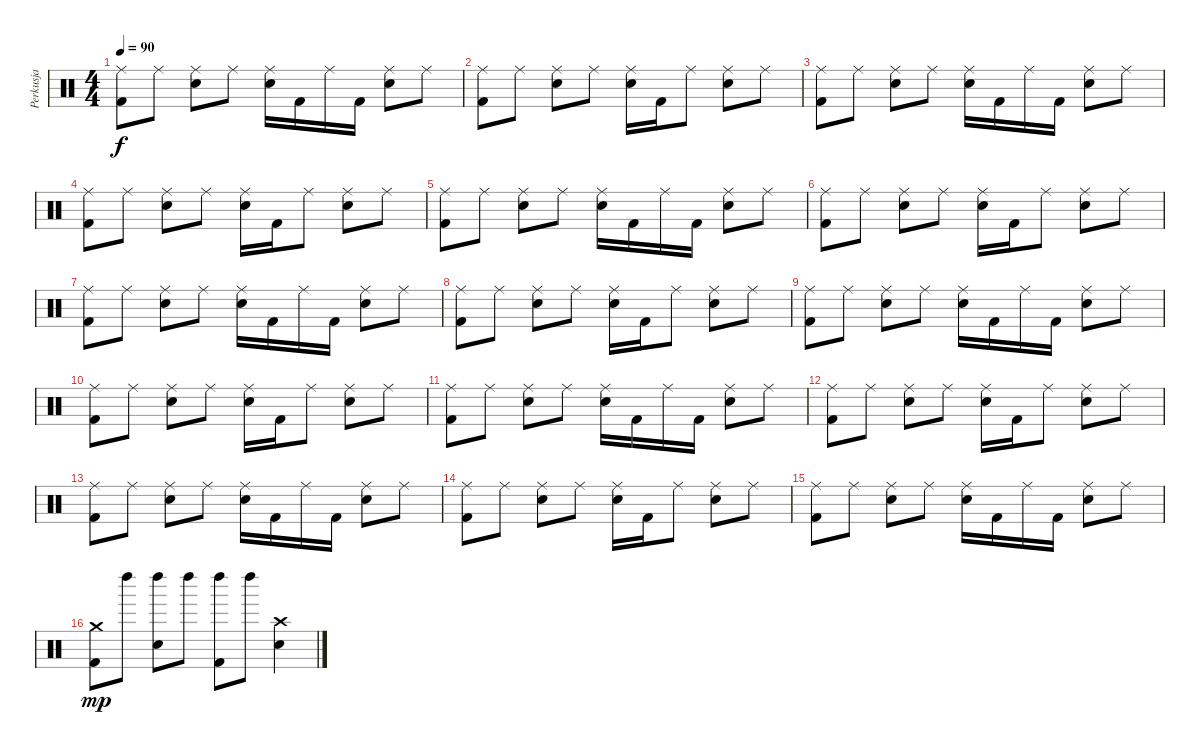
\track ("Perkusja" "Perkusja") {instrument percussion}
\staff {score}
\articulation defaults
\ts (4 4)
\tempo 90
\clef neutral
\ks c
("Kick (hit) 2" "Ride (middle)").8{dy f} "Ride (middle)".8 ("Electric Snare (hit)" "Ride (middle)").8 "Ride (middle)".8 ("Electric Snare (hit)" "Ride (middle)").16 "Kick (hit) 2".16 "Ride (middle)".16 "Kick (hit) 2".16 ("Electric Snare (hit)" "Ride (middle)").8 "Ride (middle)".8 |
("Kick (hit) 2" "Ride (middle)").8 "Ride (middle)".8 ("Electric Snare (hit)" "Ride (middle)").8 "Ride (middle)".8 ("Electric Snare (hit)" "Ride (middle)").16 "Kick (hit) 2".16 "Ride (middle)".8 ("Electric Snare (hit)" "Ride (middle)").8 "Ride (middle)".8 |
("Kick (hit) 2" "Ride (middle)").8 "Ride (middle)".8 ("Electric Snare (hit)" "Ride (middle)").8 "Ride (middle)".8 ("Electric Snare (hit)" "Ride (middle)").16 "Kick (hit) 2".16 "Ride (middle)".16 "Kick (hit) 2".16 ("Electric Snare (hit)" "Ride (middle)").8 "Ride (middle)".8 |
("Kick (hit) 2" "Ride (middle)").8 "Ride (middle)".8 ("Electric Snare (hit)" "Ride (middle)").8 "Ride (middle)".8 ("Electric Snare (hit)" "Ride (middle)").16 "Kick (hit) 2".16 "Ride (middle)".8 ("Electric Snare (hit)" "Ride (middle)").8 "Ride (middle)".8 |
("Kick (hit) 2" "Ride (middle)").8 "Ride (middle)".8 ("Electric Snare (hit)" "Ride (middle)").8 "Ride (middle)".8 ("Electric Snare (hit)" "Ride (middle)").16 "Kick (hit) 2".16 "Ride (middle)".16 "Kick (hit) 2".16 ("Electric Snare (hit)" "Ride (middle)").8 "Ride (middle)".8 |
("Kick (hit) 2" "Ride (middle)").8 "Ride (middle)".8 ("Electric Snare (hit)" "Ride (middle)").8 "Ride (middle)".8 ("Electric Snare (hit)" "Ride (middle)").16 "Kick (hit) 2".16 "Ride (middle)".8 ("Electric Snare (hit)" "Ride (middle)").8 "Ride (middle)".8 |
("Kick (hit) 2" "Ride (middle)").8 "Ride (middle)".8 ("Electric Snare (hit)" "Ride (middle)").8 "Ride (middle)".8 ("Electric Snare (hit)" "Ride (middle)").16 "Kick (hit) 2".16 "Ride (middle)".16 "Kick (hit) 2".16 ("Electric Snare (hit)" "Ride (middle)").8 "Ride (middle)".8 |
("Kick (hit) 2" "Ride (middle)").8 "Ride (middle)".8 ("Electric Snare (hit)" "Ride (middle)").8 "Ride (middle)".8 ("Electric Snare (hit)" "Ride (middle)").16 "Kick (hit) 2".16 "Ride (middle)".8 ("Electric Snare (hit)" "Ride (middle)").8 "Ride (middle)".8 |
("Kick (hit) 2" "Ride (middle)").8 "Ride (middle)".8 ("Electric Snare (hit)" "Ride (middle)").8 "Ride (middle)".8 ("Electric Snare (hit)" "Ride (middle)").16 "Kick (hit) 2".16 "Ride (middle)".16 "Kick (hit) 2".16 ("Electric Snare (hit)" "Ride (middle)").8 "Ride (middle)".8 |
("Kick (hit) 2" "Ride (middle)").8 "Ride (middle)".8 ("Electric Snare (hit)" "Ride (middle)").8 "Ride (middle)".8 ("Electric Snare (hit)" "Ride (middle)").16 "Kick (hit) 2".16 "Ride (middle)".8 ("Electric Snare (hit)" "Ride (middle)").8 "Ride (middle)".8 |
("Kick (hit) 2" "Ride (middle)").8 "Ride (middle)".8 ("Electric Snare (hit)" "Ride (middle)").8 "Ride (middle)".8 ("Electric Snare (hit)" "Ride (middle)").16 "Kick (hit) 2".16 "Ride (middle)".16 "Kick (hit) 2".16 ("Electric Snare (hit)" "Ride (middle)").8 "Ride (middle)".8 |
("Kick (hit) 2" "Ride (middle)").8 "Ride (middle)".8 ("Electric Snare (hit)" "Ride (middle)").8 "Ride (middle)".8 ("Electric Snare (hit)" "Ride (middle)").16 "Kick (hit) 2".16 "Ride (middle)".8 ("Electric Snare (hit)" "Ride (middle)").8 "Ride (middle)".8 |
("Kick (hit) 2" "Ride (middle)").8 "Ride (middle)".8 ("Electric Snare (hit)" "Ride (middle)").8 "Ride (middle)".8 ("Electric Snare (hit)" "Ride (middle)").16 "Kick (hit) 2".16 "Ride (middle)".16 "Kick (hit) 2".16 ("Electric Snare (hit)" "Ride (middle)").8 "Ride (middle)".8 |
("Kick (hit) 2" "Ride (middle)").8 "Ride (middle)".8 ("Electric Snare (hit)" "Ride (middle)").8 "Ride (middle)".8 ("Electric Snare (hit)" "Ride (middle)").16 "Kick (hit) 2".16 "Ride (middle)".8 ("Electric Snare (hit)" "Ride (middle)").8 "Ride (middle)".8 |
("Kick (hit) 2" "Ride (middle)").8 "Ride (middle)".8 ("Electric Snare (hit)" "Ride (middle)").8 "Ride (middle)".8 ("Electric Snare (hit)" "Ride (middle)").16 "Kick (hit) 2".16 "Ride (middle)".16 "Kick (hit) 2".16 ("Electric Snare (hit)" "Ride (middle)").8 "Ride (middle)".8 |
("Kick (hit) 2" "Crash medium (hit)").8{dy mp} "Left Maraca (hit)".8 ("Electric Snare (hit)" "Left Maraca (hit)").8 "Left Maraca (hit)".8 ("Kick (hit) 2" "Left Maraca (hit)").8 "Left Maraca (hit)".8 ("Electric Snare (hit)" "Crash high (hit)").4
